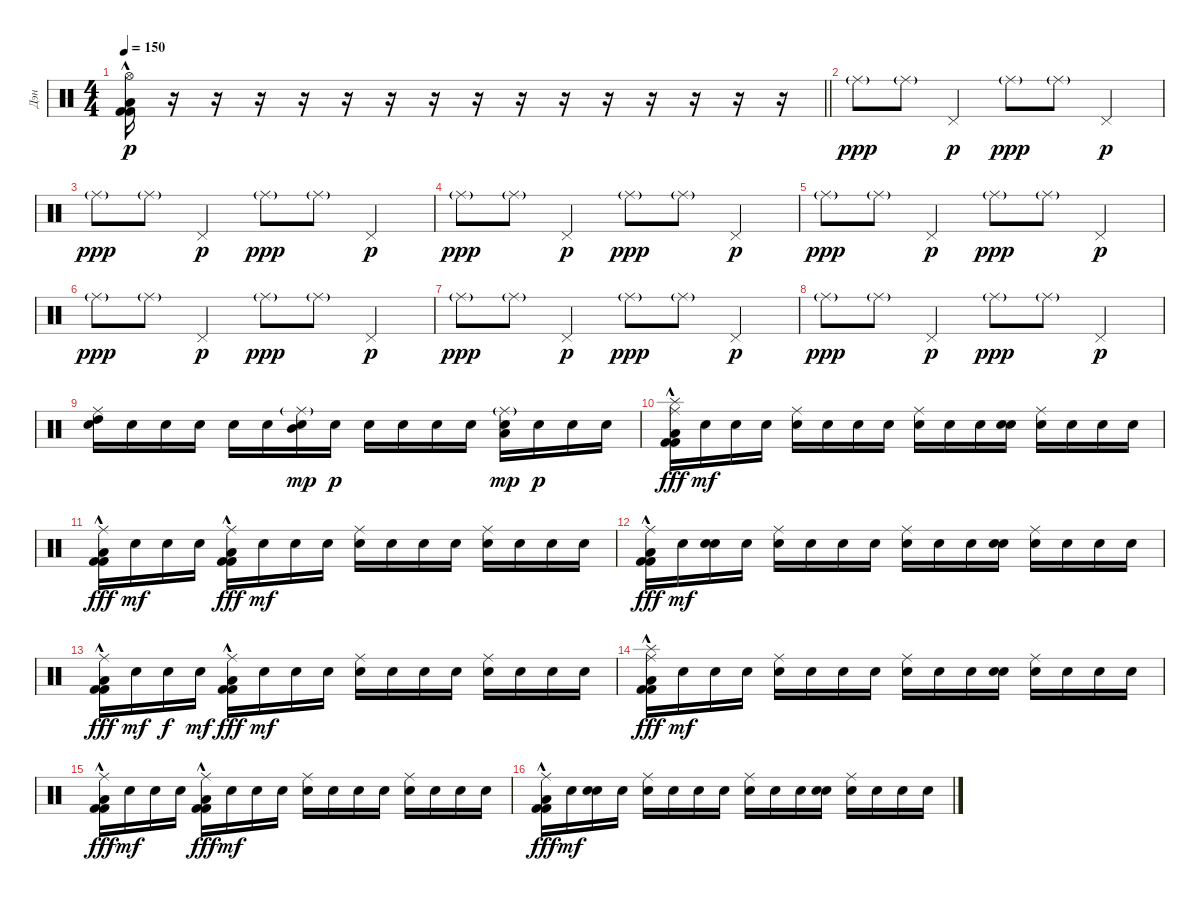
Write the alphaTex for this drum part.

\track ("Дэн" "Дэн") {instrument percussion}
\staff {score}
\articulation defaults
\ts (4 4)
\tempo 150
\clef neutral
\barLineRight lightlight
\ks c
("Kick (hit) 2"{hac} "Kick (hit) 2"{hac} "Low Floor Tom (hit)" "Hi-Hat (open)").16{dy p} r.16 r.16 r.16 r.16 r.16 r.16 r.16 r.16 r.16 r.16 r.16 r.16 r.16 r.16 r.16 |
\section ("" "")
"Ride (middle)"{g}.8{dy ppp} "Ride (middle)"{g}.8 "Pedal Hi-Hat (hit)".4{dy p} "Ride (middle)"{g}.8{dy ppp} "Ride (middle)"{g}.8 "Pedal Hi-Hat (hit)".4{dy p} |
"Ride (middle)"{g}.8{dy ppp} "Ride (middle)"{g}.8 "Pedal Hi-Hat (hit)".4{dy p} "Ride (middle)"{g}.8{dy ppp} "Ride (middle)"{g}.8 "Pedal Hi-Hat (hit)".4{dy p} |
"Ride (middle)"{g}.8{dy ppp} "Ride (middle)"{g}.8 "Pedal Hi-Hat (hit)".4{dy p} "Ride (middle)"{g}.8{dy ppp} "Ride (middle)"{g}.8 "Pedal Hi-Hat (hit)".4{dy p} |
"Ride (middle)"{g}.8{dy ppp} "Ride (middle)"{g}.8 "Pedal Hi-Hat (hit)".4{dy p} "Ride (middle)"{g}.8{dy ppp} "Ride (middle)"{g}.8 "Pedal Hi-Hat (hit)".4{dy p} |
"Ride (middle)"{g}.8{dy ppp} "Ride (middle)"{g}.8 "Pedal Hi-Hat (hit)".4{dy p} "Ride (middle)"{g}.8{dy ppp} "Ride (middle)"{g}.8 "Pedal Hi-Hat (hit)".4{dy p} |
"Ride (middle)"{g}.8{dy ppp} "Ride (middle)"{g}.8 "Pedal Hi-Hat (hit)".4{dy p} "Ride (middle)"{g}.8{dy ppp} "Ride (middle)"{g}.8 "Pedal Hi-Hat (hit)".4{dy p} |
"Ride (middle)"{g}.8{dy ppp} "Ride (middle)"{g}.8 "Pedal Hi-Hat (hit)".4{dy p} "Ride (middle)"{g}.8{dy ppp} "Ride (middle)"{g}.8 "Pedal Hi-Hat (hit)".4{dy p} |
("High Tom (hit)" "Snare (hit)" "Ride (middle)").16 "Snare (hit)".16 "Snare (hit)".16 "Snare (hit)".16 "Snare (hit)".16 "Snare (hit)".16 ("Mid Tom (hit)" "Snare (hit)" "Ride (middle)"{g}).16{dy mp} "Snare (hit)".16{dy p} "Snare (hit)".16 "Snare (hit)".16 "Snare (hit)".16 "Snare (hit)".16 ("Low Tom (hit)" "Snare (hit)" "Ride (middle)"{g}).16{dy mp} "Snare (hit)".16{dy p} "Snare (hit)".16 "Snare (hit)".16 |
("Splash (hit)" "Ride (middle)" "Low Floor Tom (hit)" "Kick (hit) 2"{hac} "Kick (hit) 2"{hac}).16{dy fff} "Snare (hit)".16{dy mf} "Snare (hit)".16 "Snare (hit)".16 ("Ride (middle)" "Snare (hit)").16 "Snare (hit)".16 "Snare (hit)".16 "Snare (hit)".16 ("Ride (middle)" "Electric Snare (hit)").16 "Snare (hit)".16 "Snare (hit)".16 ("Snare (hit)" "Snare (hit)").16 ("Ride (middle)" "Snare (hit)").16 "Snare (hit)".16 "Snare (hit)".16 "Snare (hit)".16 |
("Ride (middle)" "Low Floor Tom (hit)" "Kick (hit) 2"{hac} "Kick (hit) 2"{hac}).16{dy fff} "Snare (hit)".16{dy mf} "Snare (hit)".16 "Snare (hit)".16 ("Ride (middle)" "Kick (hit) 2"{hac} "Low Floor Tom (hit)" "Kick (hit) 2"{hac}).16{dy fff} "Snare (hit)".16{dy mf} "Snare (hit)".16 "Snare (hit)".16 ("Ride (middle)" "Electric Snare (hit)").16 "Snare (hit)".16 "Snare (hit)".16 "Snare (hit)".16 ("Ride (middle)" "Snare (hit)").16 "Snare (hit)".16 "Snare (hit)".16 "Snare (hit)".16 |
("Ride (middle)" "Low Floor Tom (hit)" "Kick (hit) 2"{hac} "Kick (hit) 2"{hac}).16{dy fff} "Snare (hit)".16{dy mf} ("Snare (hit)" "Electric Snare (hit)").16 "Snare (hit)".16 ("Ride (middle)" "Snare (hit)").16 "Snare (hit)".16 "Snare (hit)".16 "Snare (hit)".16 ("Ride (middle)" "Electric Snare (hit)").16 "Snare (hit)".16 "Snare (hit)".16 ("Snare (hit)" "Snare (hit)").16 ("Ride (middle)" "Snare (hit)").16 "Snare (hit)".16 "Snare (hit)".16 "Snare (hit)".16 |
("Ride (middle)" "Low Floor Tom (hit)" "Kick (hit) 2"{hac} "Kick (hit) 2"{hac}).16{dy fff} "Snare (hit)".16{dy mf} "Electric Snare (hit)".16{dy f} "Snare (hit)".16{dy mf} ("Ride (middle)" "Kick (hit) 2"{hac} "Low Floor Tom (hit)" "Kick (hit) 2"{hac}).16{dy fff} "Snare (hit)".16{dy mf} "Snare (hit)".16 "Snare (hit)".16 ("Ride (middle)" "Electric Snare (hit)").16 "Snare (hit)".16 "Snare (hit)".16 "Snare (hit)".16 ("Ride (middle)" "Snare (hit)").16 "Snare (hit)".16 "Snare (hit)".16 "Snare (hit)".16 |
("Splash (hit)" "Ride (middle)" "Low Floor Tom (hit)" "Kick (hit) 2"{hac} "Kick (hit) 2"{hac}).16{dy fff} "Snare (hit)".16{dy mf} "Snare (hit)".16 "Snare (hit)".16 ("Ride (middle)" "Snare (hit)").16 "Snare (hit)".16 "Snare (hit)".16 "Snare (hit)".16 ("Ride (middle)" "Electric Snare (hit)").16 "Snare (hit)".16 "Snare (hit)".16 ("Snare (hit)" "Snare (hit)").16 ("Ride (middle)" "Snare (hit)").16 "Snare (hit)".16 "Snare (hit)".16 "Snare (hit)".16 |
("Ride (middle)" "Low Floor Tom (hit)" "Kick (hit) 2"{hac} "Kick (hit) 2"{hac}).16{dy fff} "Snare (hit)".16{dy mf} "Snare (hit)".16 "Snare (hit)".16 ("Ride (middle)" "Kick (hit) 2"{hac} "Low Floor Tom (hit)" "Kick (hit) 2"{hac}).16{dy fff} "Snare (hit)".16{dy mf} "Snare (hit)".16 "Snare (hit)".16 ("Ride (middle)" "Electric Snare (hit)").16 "Snare (hit)".16 "Snare (hit)".16 "Snare (hit)".16 ("Ride (middle)" "Snare (hit)").16 "Snare (hit)".16 "Snare (hit)".16 "Snare (hit)".16 |
("Ride (middle)" "Low Floor Tom (hit)" "Kick (hit) 2"{hac} "Kick (hit) 2"{hac}).16{dy fff} "Snare (hit)".16{dy mf} ("Snare (hit)" "Electric Snare (hit)").16 "Snare (hit)".16 ("Ride (middle)" "Snare (hit)").16 "Snare (hit)".16 "Snare (hit)".16 "Snare (hit)".16 ("Ride (middle)" "Electric Snare (hit)").16 "Snare (hit)".16 "Snare (hit)".16 ("Snare (hit)" "Snare (hit)").16 ("Ride (middle)" "Snare (hit)").16 "Snare (hit)".16 "Snare (hit)".16 "Snare (hit)".16
